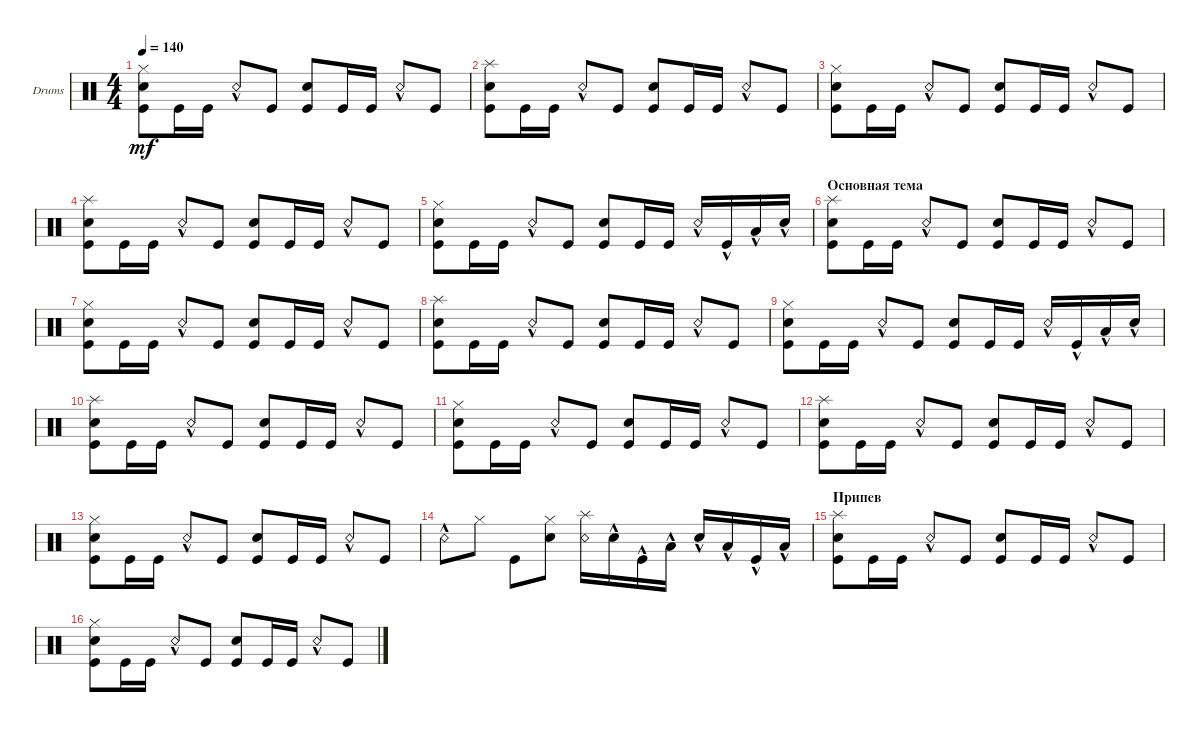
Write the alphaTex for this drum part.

\bracketExtendMode groupsimilarinstruments
\firstSystemTrackNameOrientation horizontal
\otherSystemsTrackNameOrientation horizontal
\track ("БАРАБАНЫ" "Drums") {solo instrument percussion}
\staff {score}
\articulation defaults
\ts (4 4)
\tempo 140
\clef neutral
\ks c
("Kick (hit)" "Snare (hit) 2" "Hi-Hat (closed)").8{dy mf} "Kick (hit)".16 "Kick (hit)".16 "Snare (rim shot)"{hac}.8 "Kick (hit)".8 ("Kick (hit)" "Snare (hit) 2").8 "Kick (hit)".16 "Kick (hit)".16 "Snare (rim shot)"{hac}.8 "Kick (hit)".8 |
("Kick (hit)" "Snare (hit) 2" "Splash (hit)").8 "Kick (hit)".16 "Kick (hit)".16 "Snare (rim shot)"{hac}.8 "Kick (hit)".8 ("Kick (hit)" "Snare (hit) 2").8 "Kick (hit)".16 "Kick (hit)".16 "Snare (rim shot)"{hac}.8 "Kick (hit)".8 |
("Kick (hit)" "Snare (hit) 2" "Hi-Hat (closed)").8 "Kick (hit)".16 "Kick (hit)".16 "Snare (rim shot)"{hac}.8 "Kick (hit)".8 ("Kick (hit)" "Snare (hit) 2").8 "Kick (hit)".16 "Kick (hit)".16 "Snare (rim shot)"{hac}.8 "Kick (hit)".8 |
("Kick (hit)" "Snare (hit) 2" "Splash (hit)").8 "Kick (hit)".16 "Kick (hit)".16 "Snare (rim shot)"{hac}.8 "Kick (hit)".8 ("Kick (hit)" "Snare (hit) 2").8 "Kick (hit)".16 "Kick (hit)".16 "Snare (rim shot)"{hac}.8 "Kick (hit)".8 |
("Kick (hit)" "Snare (hit) 2" "Hi-Hat (closed)").8 "Kick (hit)".16 "Kick (hit)".16 "Snare (rim shot)"{hac}.8 "Kick (hit)".8 ("Kick (hit)" "Snare (hit) 2").8 "Kick (hit)".16 "Kick (hit)".16 "Snare (rim shot)"{hac}.16 "Kick (hit)"{hac}.16 "Low Tom (hit)"{hac}.16 "Snare (hit) 2"{hac}.16 |
\section ("" "Основная тема")
("Kick (hit)" "Snare (hit) 2" "Splash (hit)").8 "Kick (hit)".16 "Kick (hit)".16 "Snare (rim shot)"{hac}.8 "Kick (hit)".8 ("Kick (hit)" "Snare (hit) 2").8 "Kick (hit)".16 "Kick (hit)".16 "Snare (rim shot)"{hac}.8 "Kick (hit)".8 |
("Kick (hit)" "Snare (hit) 2" "Hi-Hat (closed)").8 "Kick (hit)".16 "Kick (hit)".16 "Snare (rim shot)"{hac}.8 "Kick (hit)".8 ("Kick (hit)" "Snare (hit) 2").8 "Kick (hit)".16 "Kick (hit)".16 "Snare (rim shot)"{hac}.8 "Kick (hit)".8 |
("Kick (hit)" "Snare (hit) 2" "Splash (hit)").8 "Kick (hit)".16 "Kick (hit)".16 "Snare (rim shot)"{hac}.8 "Kick (hit)".8 ("Kick (hit)" "Snare (hit) 2").8 "Kick (hit)".16 "Kick (hit)".16 "Snare (rim shot)"{hac}.8 "Kick (hit)".8 |
("Kick (hit)" "Snare (hit) 2" "Hi-Hat (closed)").8 "Kick (hit)".16 "Kick (hit)".16 "Snare (rim shot)"{hac}.8 "Kick (hit)".8 ("Kick (hit)" "Snare (hit) 2").8 "Kick (hit)".16 "Kick (hit)".16 "Snare (rim shot)"{hac}.16 "Kick (hit)"{hac}.16 "Low Tom (hit)"{hac}.16 "Snare (hit) 2"{hac}.16 |
("Kick (hit)" "Snare (hit) 2" "Splash (hit)").8 "Kick (hit)".16 "Kick (hit)".16 "Snare (rim shot)"{hac}.8 "Kick (hit)".8 ("Kick (hit)" "Snare (hit) 2").8 "Kick (hit)".16 "Kick (hit)".16 "Snare (rim shot)"{hac}.8 "Kick (hit)".8 |
("Kick (hit)" "Snare (hit) 2" "Hi-Hat (closed)").8 "Kick (hit)".16 "Kick (hit)".16 "Snare (rim shot)"{hac}.8 "Kick (hit)".8 ("Kick (hit)" "Snare (hit) 2").8 "Kick (hit)".16 "Kick (hit)".16 "Snare (rim shot)"{hac}.8 "Kick (hit)".8 |
("Kick (hit)" "Snare (hit) 2" "Splash (hit)").8 "Kick (hit)".16 "Kick (hit)".16 "Snare (rim shot)"{hac}.8 "Kick (hit)".8 ("Kick (hit)" "Snare (hit) 2").8 "Kick (hit)".16 "Kick (hit)".16 "Snare (rim shot)"{hac}.8 "Kick (hit)".8 |
("Kick (hit)" "Snare (hit) 2" "Hi-Hat (closed)").8 "Kick (hit)".16 "Kick (hit)".16 "Snare (rim shot)"{hac}.8 "Kick (hit)".8 ("Kick (hit)" "Snare (hit) 2").8 "Kick (hit)".16 "Kick (hit)".16 "Snare (rim shot)"{hac}.8 "Kick (hit)".8 |
"Snare (rim shot)"{hac}.8 "Hi-Hat (closed)".8 "Kick (hit)".8 ("Hi-Hat (closed)" "Snare (hit) 2").8 ("Snare (rim shot)" "Splash (hit)").16 "Snare (hit) 2"{hac}.16 "Kick (hit)"{hac}.16 "Low Tom (hit)"{hac}.16 "Snare (hit) 2"{hac}.16 "Low Tom (hit)"{hac}.16 "Kick (hit)"{hac}.16 "Low Tom (hit)"{hac}.16 |
\section ("" "Припев")
("Kick (hit)" "Snare (hit) 2" "Splash (hit)").8 "Kick (hit)".16 "Kick (hit)".16 "Snare (rim shot)"{hac}.8 "Kick (hit)".8 ("Kick (hit)" "Snare (hit) 2").8 "Kick (hit)".16 "Kick (hit)".16 "Snare (rim shot)"{hac}.8 "Kick (hit)".8 |
("Kick (hit)" "Snare (hit) 2" "Hi-Hat (closed)").8 "Kick (hit)".16 "Kick (hit)".16 "Snare (rim shot)"{hac}.8 "Kick (hit)".8 ("Kick (hit)" "Snare (hit) 2").8 "Kick (hit)".16 "Kick (hit)".16 "Snare (rim shot)"{hac}.8 "Kick (hit)".8
